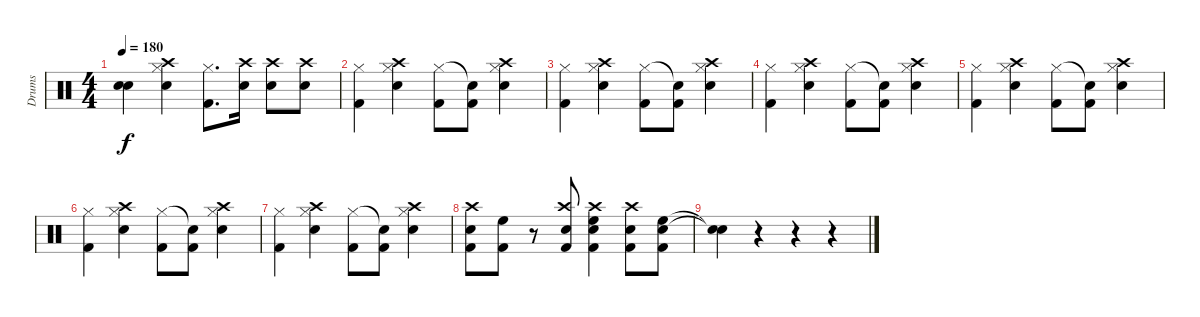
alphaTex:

\track ("Drums" "Drums") {instrument percussion}
\staff {score}
\articulation defaults
\ts (4 4)
\tempo 180
\clef neutral
\ks c
("Snare (hit)"{t} "Snare (hit)"{t}).4{dy f} ("Crash high (hit)" "Hi-Hat (closed)" "Snare (hit) 2").4 ("Hi-Hat (closed)" "Kick (hit) 2").8{d} ("Crash high (hit)" "Snare (hit) 2").16 ("Crash high (hit)" "Snare (hit) 2").8 ("Crash high (hit)" "Snare (hit) 2").8 |
("Hi-Hat (closed)" "Kick (hit) 2").4 ("Crash high (hit)" "Hi-Hat (closed)" "Snare (hit) 2").4 ("Hi-Hat (closed)" "Kick (hit) 2").8 ("Snare (hit)"{t} "Kick (hit) 2").8 ("Crash high (hit)" "Hi-Hat (closed)" "Snare (hit) 2").4 |
("Hi-Hat (closed)" "Kick (hit) 2").4 ("Crash high (hit)" "Hi-Hat (closed)" "Snare (hit) 2").4 ("Hi-Hat (closed)" "Kick (hit) 2").8 ("Snare (hit)"{t} "Kick (hit) 2").8 ("Crash high (hit)" "Hi-Hat (closed)" "Snare (hit) 2").4 |
("Hi-Hat (closed)" "Kick (hit) 2").4 ("Crash high (hit)" "Hi-Hat (closed)" "Snare (hit) 2").4 ("Hi-Hat (closed)" "Kick (hit) 2").8 ("Snare (hit)"{t} "Kick (hit) 2").8 ("Crash high (hit)" "Hi-Hat (closed)" "Snare (hit) 2").4 |
("Hi-Hat (closed)" "Kick (hit) 2").4 ("Crash high (hit)" "Hi-Hat (closed)" "Snare (hit) 2").4 ("Hi-Hat (closed)" "Kick (hit) 2").8 ("Snare (hit)"{t} "Kick (hit) 2").8 ("Crash high (hit)" "Hi-Hat (closed)" "Snare (hit) 2").4 |
("Hi-Hat (closed)" "Kick (hit) 2").4 ("Crash high (hit)" "Hi-Hat (closed)" "Snare (hit) 2").4 ("Hi-Hat (closed)" "Kick (hit) 2").8 ("Snare (hit)"{t} "Kick (hit) 2").8 ("Crash high (hit)" "Hi-Hat (closed)" "Snare (hit) 2").4 |
("Hi-Hat (closed)" "Kick (hit) 2").4 ("Crash high (hit)" "Hi-Hat (closed)" "Snare (hit) 2").4 ("Hi-Hat (closed)" "Kick (hit) 2").8 ("Snare (hit)"{t} "Kick (hit) 2").8 ("Crash high (hit)" "Hi-Hat (closed)" "Snare (hit) 2").4 |
("Crash high (hit)" "Snare (hit) 2" "Kick (hit) 2").8 ("High Floor Tom (hit)" "Kick (hit) 2").8 r.8 ("Crash high (hit)" "Snare (hit) 2" "Kick (hit) 2").8 ("Crash high (hit)" "High Floor Tom (hit)" "Snare (hit) 2" "Kick (hit) 2").4 ("Crash high (hit)" "Snare (hit) 2" "Kick (hit) 2").8 ("High Floor Tom (hit)" "Snare (hit) 2" "Kick (hit) 2").8 |
("Snare (hit)"{t} "Snare (hit)"{t}).4 r.4 r.4 r.4
